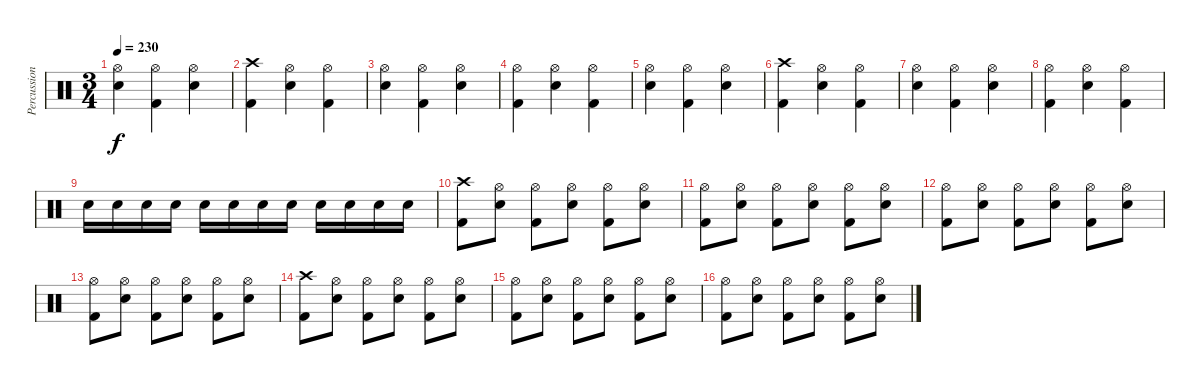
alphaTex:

\track ("Percussion" "Percussion") {instrument percussion}
\staff {score}
\articulation defaults
\ts (3 4)
\tempo 230
\clef neutral
\ks c
("Hi-Hat (open)" "Electric Snare (hit)").4{dy f} ("Hi-Hat (open)" "Kick (hit) 2").4 ("Hi-Hat (open)" "Electric Snare (hit)").4 |
("Crash high (hit)" "Kick (hit) 2").4 ("Hi-Hat (open)" "Electric Snare (hit)").4 ("Hi-Hat (open)" "Kick (hit) 2").4 |
("Hi-Hat (open)" "Electric Snare (hit)").4 ("Hi-Hat (open)" "Kick (hit) 2").4 ("Hi-Hat (open)" "Electric Snare (hit)").4 |
("Hi-Hat (open)" "Kick (hit) 2").4 ("Hi-Hat (open)" "Electric Snare (hit)").4 ("Hi-Hat (open)" "Kick (hit) 2").4 |
("Hi-Hat (open)" "Electric Snare (hit)").4 ("Hi-Hat (open)" "Kick (hit) 2").4 ("Hi-Hat (open)" "Electric Snare (hit)").4 |
("Crash high (hit)" "Kick (hit) 2").4 ("Hi-Hat (open)" "Electric Snare (hit)").4 ("Hi-Hat (open)" "Kick (hit) 2").4 |
("Hi-Hat (open)" "Electric Snare (hit)").4 ("Hi-Hat (open)" "Kick (hit) 2").4 ("Hi-Hat (open)" "Electric Snare (hit)").4 |
("Hi-Hat (open)" "Kick (hit) 2").4 ("Hi-Hat (open)" "Electric Snare (hit)").4 ("Hi-Hat (open)" "Kick (hit) 2").4 |
"Electric Snare (hit)".16 "Electric Snare (hit)".16 "Electric Snare (hit)".16 "Electric Snare (hit)".16 "Electric Snare (hit)".16 "Electric Snare (hit)".16 "Electric Snare (hit)".16 "Electric Snare (hit)".16 "Electric Snare (hit)".16 "Electric Snare (hit)".16 "Electric Snare (hit)".16 "Electric Snare (hit)".16 |
("Crash high (hit)" "Kick (hit) 2").8 ("Hi-Hat (open)" "Electric Snare (hit)").8 ("Hi-Hat (open)" "Kick (hit) 2").8 ("Hi-Hat (open)" "Electric Snare (hit)").8 ("Hi-Hat (open)" "Kick (hit) 2").8 ("Hi-Hat (open)" "Electric Snare (hit)").8 |
("Hi-Hat (open)" "Kick (hit) 2").8 ("Hi-Hat (open)" "Electric Snare (hit)").8 ("Hi-Hat (open)" "Kick (hit) 2").8 ("Hi-Hat (open)" "Electric Snare (hit)").8 ("Hi-Hat (open)" "Kick (hit) 2").8 ("Hi-Hat (open)" "Electric Snare (hit)").8 |
("Hi-Hat (open)" "Kick (hit) 2").8 ("Hi-Hat (open)" "Electric Snare (hit)").8 ("Hi-Hat (open)" "Kick (hit) 2").8 ("Hi-Hat (open)" "Electric Snare (hit)").8 ("Hi-Hat (open)" "Kick (hit) 2").8 ("Hi-Hat (open)" "Electric Snare (hit)").8 |
("Hi-Hat (open)" "Kick (hit) 2").8 ("Hi-Hat (open)" "Electric Snare (hit)").8 ("Hi-Hat (open)" "Kick (hit) 2").8 ("Hi-Hat (open)" "Electric Snare (hit)").8 ("Hi-Hat (open)" "Kick (hit) 2").8 ("Hi-Hat (open)" "Electric Snare (hit)").8 |
("Crash high (hit)" "Kick (hit) 2").8 ("Hi-Hat (open)" "Electric Snare (hit)").8 ("Hi-Hat (open)" "Kick (hit) 2").8 ("Hi-Hat (open)" "Electric Snare (hit)").8 ("Hi-Hat (open)" "Kick (hit) 2").8 ("Hi-Hat (open)" "Electric Snare (hit)").8 |
("Hi-Hat (open)" "Kick (hit) 2").8 ("Hi-Hat (open)" "Electric Snare (hit)").8 ("Hi-Hat (open)" "Kick (hit) 2").8 ("Hi-Hat (open)" "Electric Snare (hit)").8 ("Hi-Hat (open)" "Kick (hit) 2").8 ("Hi-Hat (open)" "Electric Snare (hit)").8 |
("Hi-Hat (open)" "Kick (hit) 2").8 ("Hi-Hat (open)" "Electric Snare (hit)").8 ("Hi-Hat (open)" "Kick (hit) 2").8 ("Hi-Hat (open)" "Electric Snare (hit)").8 ("Hi-Hat (open)" "Kick (hit) 2").8 ("Hi-Hat (open)" "Electric Snare (hit)").8
